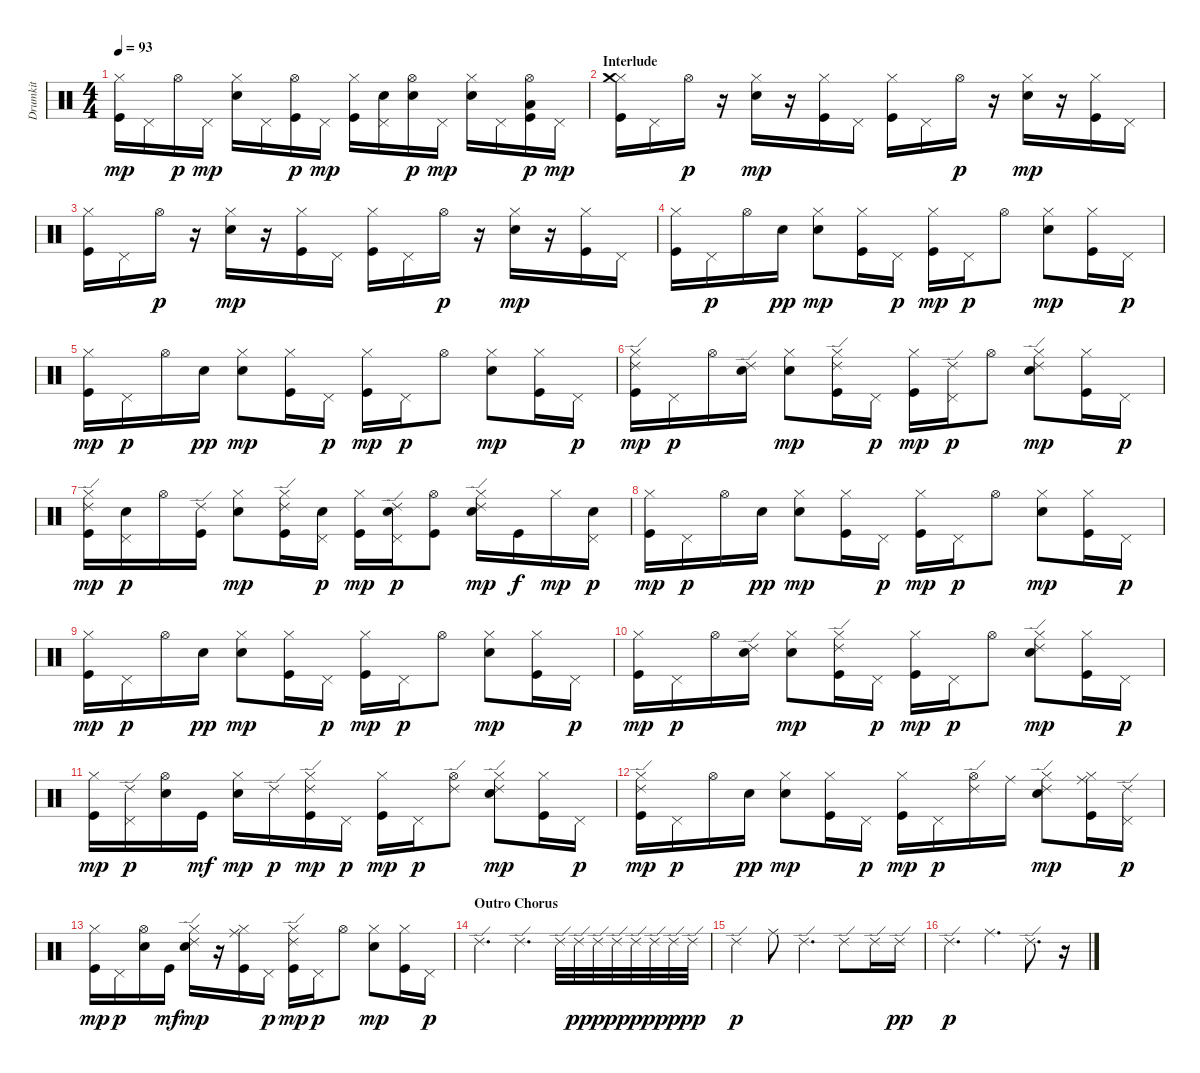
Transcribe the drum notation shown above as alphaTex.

\track ("Drumkit" "Drumkit") {instrument percussion}
\staff {score}
\articulation defaults
\ts (4 4)
\tempo 93
\clef neutral
\ks c
("Hi-Hat (closed)" "Kick (hit)").16{dy mp} "Pedal Hi-Hat (hit)".16 "Hi-Hat (open)".16{dy p} "Pedal Hi-Hat (hit)".16{dy mp} ("Hi-Hat (closed)" "Snare (hit) 2").16 "Pedal Hi-Hat (hit)".16 ("Hi-Hat (open)" "Kick (hit)").16{dy p} "Pedal Hi-Hat (hit)".16{dy mp} ("Hi-Hat (closed)" "Kick (hit)").16 ("Pedal Hi-Hat (hit)" "Snare (hit) 2").16 ("Hi-Hat (open)" "Snare (hit) 2").16{dy p} "Pedal Hi-Hat (hit)".16{dy mp} ("Hi-Hat (closed)" "Snare (hit) 2").16 "Pedal Hi-Hat (hit)".16 ("Hi-Hat (open)" "Low Tom (hit)" "Kick (hit)").16{dy p} "Pedal Hi-Hat (hit)".16{dy mp} |
\section ("" "Interlude")
("Hi-Hat (closed)" "Crash medium (hit)" "Kick (hit)").16 "Pedal Hi-Hat (hit)".16 "Hi-Hat (open)".16{dy p} r.16 ("Hi-Hat (closed)" "Snare (hit) 2").16{dy mp} r.16 ("Hi-Hat (closed)" "Kick (hit)").16 "Pedal Hi-Hat (hit)".16 ("Hi-Hat (closed)" "Kick (hit)").16 "Pedal Hi-Hat (hit)".16 "Hi-Hat (open)".16{dy p} r.16 ("Hi-Hat (closed)" "Snare (hit) 2").16{dy mp} r.16 ("Hi-Hat (closed)" "Kick (hit)").16 "Pedal Hi-Hat (hit)".16 |
("Hi-Hat (closed)" "Kick (hit)").16 "Pedal Hi-Hat (hit)".16 "Hi-Hat (open)".16{dy p} r.16 ("Hi-Hat (closed)" "Snare (hit) 2").16{dy mp} r.16 ("Hi-Hat (closed)" "Kick (hit)").16 "Pedal Hi-Hat (hit)".16 ("Hi-Hat (closed)" "Kick (hit)").16 "Pedal Hi-Hat (hit)".16 "Hi-Hat (open)".16{dy p} r.16 ("Hi-Hat (closed)" "Snare (hit) 2").16{dy mp} r.16 ("Hi-Hat (closed)" "Kick (hit)").16 "Pedal Hi-Hat (hit)".16 |
("Hi-Hat (closed)" "Kick (hit)").16 "Pedal Hi-Hat (hit)".16{dy p} "Hi-Hat (open)".16 "Snare (hit) 2".16{dy pp} ("Hi-Hat (closed)" "Snare (hit) 2").8{dy mp} ("Hi-Hat (closed)" "Kick (hit)").16 "Pedal Hi-Hat (hit)".16{dy p} ("Hi-Hat (closed)" "Kick (hit)").16{dy mp} "Pedal Hi-Hat (hit)".16{dy p} "Hi-Hat (open)".8 ("Hi-Hat (closed)" "Snare (hit) 2").8{dy mp} ("Hi-Hat (closed)" "Kick (hit)").16 "Pedal Hi-Hat (hit)".16{dy p} |
("Hi-Hat (closed)" "Kick (hit)").16{dy mp} "Pedal Hi-Hat (hit)".16{dy p} "Hi-Hat (open)".16 "Snare (hit) 2".16{dy pp} ("Hi-Hat (closed)" "Snare (hit) 2").8{dy mp} ("Hi-Hat (closed)" "Kick (hit)").16 "Pedal Hi-Hat (hit)".16{dy p} ("Hi-Hat (closed)" "Kick (hit)").16{dy mp} "Pedal Hi-Hat (hit)".16{dy p} "Hi-Hat (open)".8 ("Hi-Hat (closed)" "Snare (hit) 2").8{dy mp} ("Hi-Hat (closed)" "Kick (hit)").16 "Pedal Hi-Hat (hit)".16{dy p} |
("Hi-Hat (closed)" "Ride (edge) 2" "Kick (hit)").16{dy mp} "Pedal Hi-Hat (hit)".16{dy p} "Hi-Hat (open)".16 ("Ride (edge) 2" "Snare (hit) 2").16 ("Hi-Hat (closed)" "Snare (hit) 2").8{dy mp} ("Hi-Hat (closed)" "Ride (edge) 2" "Kick (hit)").16 "Pedal Hi-Hat (hit)".16{dy p} ("Hi-Hat (closed)" "Kick (hit)").16{dy mp} ("Pedal Hi-Hat (hit)" "Ride (edge) 2").16{dy p} "Hi-Hat (open)".8 ("Hi-Hat (closed)" "Snare (hit) 2" "Ride (edge) 2").8{dy mp} ("Hi-Hat (closed)" "Kick (hit)").16 "Pedal Hi-Hat (hit)".16{dy p} |
("Hi-Hat (closed)" "Ride (edge) 2" "Kick (hit)").16{dy mp} ("Pedal Hi-Hat (hit)" "Snare (hit) 2").16{dy p} "Hi-Hat (open)".16 ("Ride (edge) 2" "Kick (hit)").16 ("Hi-Hat (closed)" "Snare (hit) 2").8{dy mp} ("Hi-Hat (closed)" "Ride (edge) 2" "Kick (hit)").16 ("Pedal Hi-Hat (hit)" "Snare (hit) 2").16{dy p} ("Hi-Hat (closed)" "Kick (hit)").16{dy mp} ("Pedal Hi-Hat (hit)" "Snare (hit) 2" "Ride (edge) 2").16{dy p} ("Hi-Hat (open)" "Kick (hit)").8 ("Hi-Hat (closed)" "Snare (hit) 2" "Ride (edge) 2").16{dy mp} "Kick (hit)".16{dy f} "Hi-Hat (closed)".16{dy mp} ("Pedal Hi-Hat (hit)" "Snare (hit) 2").16{dy p} |
("Hi-Hat (closed)" "Kick (hit)").16{dy mp} "Pedal Hi-Hat (hit)".16{dy p} "Hi-Hat (open)".16 "Snare (hit) 2".16{dy pp} ("Hi-Hat (closed)" "Snare (hit) 2").8{dy mp} ("Hi-Hat (closed)" "Kick (hit)").16 "Pedal Hi-Hat (hit)".16{dy p} ("Hi-Hat (closed)" "Kick (hit)").16{dy mp} "Pedal Hi-Hat (hit)".16{dy p} "Hi-Hat (open)".8 ("Hi-Hat (closed)" "Snare (hit) 2").8{dy mp} ("Hi-Hat (closed)" "Kick (hit)").16 "Pedal Hi-Hat (hit)".16{dy p} |
("Hi-Hat (closed)" "Kick (hit)").16{dy mp} "Pedal Hi-Hat (hit)".16{dy p} "Hi-Hat (open)".16 "Snare (hit) 2".16{dy pp} ("Hi-Hat (closed)" "Snare (hit) 2").8{dy mp} ("Hi-Hat (closed)" "Kick (hit)").16 "Pedal Hi-Hat (hit)".16{dy p} ("Hi-Hat (closed)" "Kick (hit)").16{dy mp} "Pedal Hi-Hat (hit)".16{dy p} "Hi-Hat (open)".8 ("Hi-Hat (closed)" "Snare (hit) 2").8{dy mp} ("Hi-Hat (closed)" "Kick (hit)").16 "Pedal Hi-Hat (hit)".16{dy p} |
("Hi-Hat (closed)" "Kick (hit)").16{dy mp} "Pedal Hi-Hat (hit)".16{dy p} "Hi-Hat (open)".16 ("Ride (edge) 2" "Snare (hit) 2").16 ("Hi-Hat (closed)" "Snare (hit) 2").8{dy mp} ("Hi-Hat (closed)" "Ride (edge) 2" "Kick (hit)").16 "Pedal Hi-Hat (hit)".16{dy p} ("Hi-Hat (closed)" "Kick (hit)").16{dy mp} "Pedal Hi-Hat (hit)".16{dy p} "Hi-Hat (open)".8 ("Hi-Hat (closed)" "Snare (hit) 2" "Ride (edge) 2").8{dy mp} ("Hi-Hat (closed)" "Kick (hit)").16 "Pedal Hi-Hat (hit)".16{dy p} |
("Hi-Hat (closed)" "Kick (hit)").16{dy mp} ("Pedal Hi-Hat (hit)" "Ride (edge) 2").16{dy p} ("Hi-Hat (open)" "Snare (hit) 2").16 "Kick (hit)".16{dy mf} ("Hi-Hat (closed)" "Snare (hit) 2").16{dy mp} "Ride (edge) 2".16{dy p} ("Hi-Hat (closed)" "Ride (edge) 2" "Kick (hit)").16{dy mp} "Pedal Hi-Hat (hit)".16{dy p} ("Hi-Hat (closed)" "Kick (hit)").16{dy mp} "Pedal Hi-Hat (hit)".16{dy p} ("Hi-Hat (open)" "Ride (edge) 2").8 ("Hi-Hat (closed)" "Snare (hit) 2" "Ride (edge) 2").8{dy mp} ("Hi-Hat (closed)" "Kick (hit)").16 "Pedal Hi-Hat (hit)".16{dy p} |
("Hi-Hat (closed)" "Ride (edge) 2" "Kick (hit)").16{dy mp} "Pedal Hi-Hat (hit)".16{dy p} "Hi-Hat (open)".16 "Snare (hit) 2".16{dy pp} ("Hi-Hat (closed)" "Snare (hit) 2").8{dy mp} ("Hi-Hat (closed)" "Kick (hit)").16 "Pedal Hi-Hat (hit)".16{dy p} ("Hi-Hat (closed)" "Kick (hit)").16{dy mp} "Pedal Hi-Hat (hit)".16{dy p} ("Hi-Hat (open)" "Ride (edge) 2").16 "Ride (middle)".16 ("Hi-Hat (closed)" "Snare (hit) 2" "Ride (edge) 2").8{dy mp} ("Hi-Hat (closed)" "Ride (middle)" "Kick (hit)").16 ("Pedal Hi-Hat (hit)" "Ride (edge) 2").16{dy p} |
("Hi-Hat (closed)" "Kick (hit)").16{dy mp} "Pedal Hi-Hat (hit)".16{dy p} ("Hi-Hat (open)" "Snare (hit) 2").16 "Kick (hit)".16{dy mf} ("Hi-Hat (closed)" "Snare (hit) 2" "Ride (edge) 2").16{dy mp} r.16 ("Hi-Hat (closed)" "Ride (middle)" "Kick (hit)").16 "Pedal Hi-Hat (hit)".16{dy p} ("Hi-Hat (closed)" "Ride (edge) 2" "Kick (hit)").16{dy mp} "Pedal Hi-Hat (hit)".16{dy p} "Hi-Hat (open)".8 ("Hi-Hat (closed)" "Snare (hit) 2").8{dy mp} ("Hi-Hat (closed)" "Kick (hit)").16 "Pedal Hi-Hat (hit)".16{dy p} |
\section ("" "Outro Chorus")
"Ride (edge) 2".4{d} "Ride (edge) 2".4{d} "Ride (edge) 2".32 "Ride (edge) 2".32{dy pp} "Ride (edge) 2".32{dy p} "Ride (edge) 2".32{dy pp} "Ride (edge) 2".32{dy p} "Ride (edge) 2".32{dy pp} "Ride (edge) 2".32{dy p} "Ride (edge) 2".32{dy pp} |
"Ride (edge) 2".4{dy p} "Ride (middle)".8 "Ride (edge) 2".4{d} "Ride (edge) 2".8 "Ride (edge) 2".16 "Ride (edge) 2".16{dy pp} |
"Ride (edge) 2".4{d dy p} "Ride (middle)".4{d} "Ride (edge) 2".8{d} r.16
